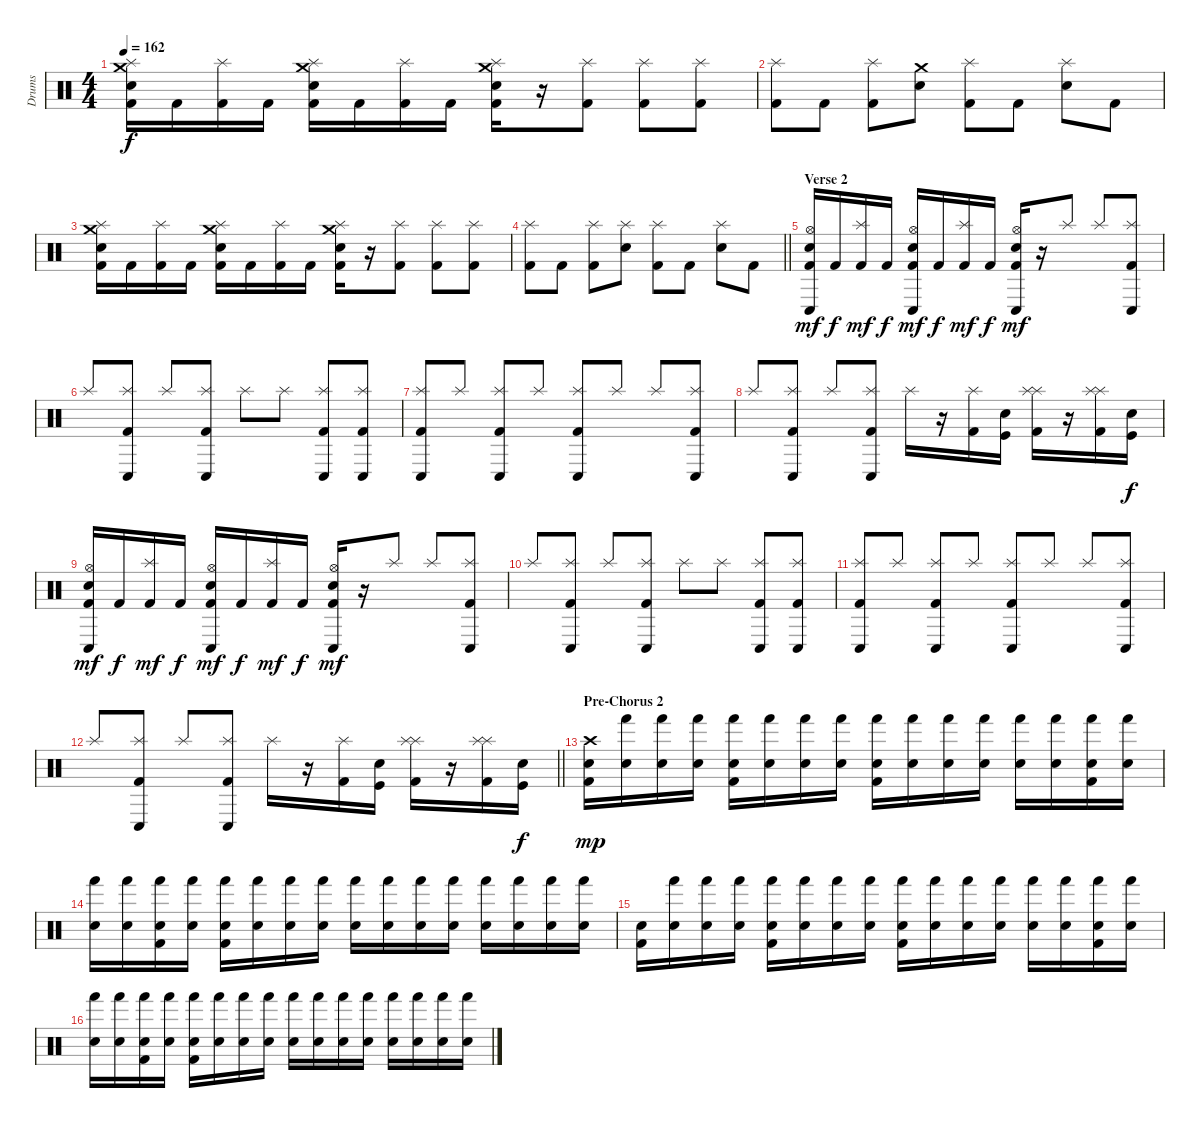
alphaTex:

\track ("Drums" "Drums") {instrument percussion}
\staff {score}
\articulation defaults
\ts (4 4)
\tempo 162
\clef neutral
\ks c
("Snare (hit) 2" "Kick (hit) 2" "Crash medium (hit)" "Splash (hit)").16{dy f} "Kick (hit) 2".16 ("Kick (hit) 2" "Splash (hit)").16 "Kick (hit) 2".16 ("Snare (hit) 2" "Kick (hit) 2" "Crash medium (hit)" "Splash (hit)").16 "Kick (hit) 2".16 ("Kick (hit) 2" "Splash (hit)").16 "Kick (hit) 2".16 ("Snare (hit) 2" "Kick (hit) 2" "Crash medium (hit)" "Splash (hit)").16 r.16 ("Kick (hit) 2" "Splash (hit)").8 ("Kick (hit) 2" "Splash (hit)").8 ("Kick (hit) 2" "Splash (hit)").8 |
("Kick (hit) 2" "Splash (hit)").8 "Kick (hit) 2".8 ("Kick (hit) 2" "Splash (hit)").8 ("Snare (hit) 2" "Crash medium (hit)").8 ("Kick (hit) 2" "Splash (hit)").8 "Kick (hit) 2".8 ("Snare (hit) 2" "Splash (hit)").8 "Kick (hit) 2".8 |
("Snare (hit) 2" "Kick (hit) 2" "Crash medium (hit)" "Splash (hit)").16 "Kick (hit) 2".16 ("Kick (hit) 2" "Splash (hit)").16 "Kick (hit) 2".16 ("Snare (hit) 2" "Kick (hit) 2" "Crash medium (hit)" "Splash (hit)").16 "Kick (hit) 2".16 ("Kick (hit) 2" "Splash (hit)").16 "Kick (hit) 2".16 ("Snare (hit) 2" "Kick (hit) 2" "Crash medium (hit)" "Splash (hit)").16 r.16 ("Kick (hit) 2" "Splash (hit)").8 ("Kick (hit) 2" "Splash (hit)").8 ("Kick (hit) 2" "Splash (hit)").8 |
\barLineRight lightlight
("Kick (hit) 2" "Splash (hit)").8 "Kick (hit) 2".8 ("Kick (hit) 2" "Splash (hit)").8 ("Snare (hit) 2" "Splash (hit)").8 ("Kick (hit) 2" "Splash (hit)").8 "Kick (hit) 2".8 ("Snare (hit) 2" "Splash (hit)").8 "Kick (hit) 2".8 |
\section ("" "Verse 2")
("Hi-Hat (open)" "Snare (hit) 2" "Conga low (hit)" "Kick (hit) 2").16{dy mf} "Kick (hit) 2".16{dy f} ("Splash (hit)" "Kick (hit) 2").16{dy mf} "Kick (hit) 2".16{dy f} ("Hi-Hat (open)" "Snare (hit) 2" "Conga low (hit)" "Kick (hit) 2").16{dy mf} "Kick (hit) 2".16{dy f} ("Splash (hit)" "Kick (hit) 2").16{dy mf} "Kick (hit) 2".16{dy f} ("Hi-Hat (open)" "Snare (hit) 2" "Conga low (hit)" "Kick (hit) 2").16{dy mf} r.16 "Splash (hit)".8 "Splash (hit)".8 ("Splash (hit)" "Conga low (hit)" "Kick (hit) 2").8 |
"Splash (hit)".8 ("Splash (hit)" "Conga low (hit)" "Kick (hit) 2").8 "Splash (hit)".8 ("Splash (hit)" "Conga low (hit)" "Kick (hit) 2").8 "Splash (hit)".8 "Splash (hit)".8 ("Splash (hit)" "Conga low (hit)" "Kick (hit) 2").8 ("Splash (hit)" "Conga low (hit)" "Kick (hit) 2").8 |
("Splash (hit)" "Conga low (hit)" "Kick (hit) 2").8 "Splash (hit)".8 ("Splash (hit)" "Conga low (hit)" "Kick (hit) 2").8 "Splash (hit)".8 ("Splash (hit)" "Conga low (hit)" "Kick (hit) 2").8 "Splash (hit)".8 "Splash (hit)".8 ("Splash (hit)" "Conga low (hit)" "Kick (hit) 2").8 |
"Splash (hit)".8 ("Splash (hit)" "Conga low (hit)" "Kick (hit) 2").8 "Splash (hit)".8 ("Splash (hit)" "Conga low (hit)" "Kick (hit) 2").8 "Splash (hit)".16 r.16 ("Kick (hit) 2" "Splash (hit)").16 ("Kick (hit)" "Electric Snare (hit)").16 ("Kick (hit) 2" "Splash (hit)" "Splash (hit)").16 r.16 ("Kick (hit) 2" "Splash (hit)" "Splash (hit)").16 ("Kick (hit)" "Electric Snare (hit)").16{dy f} |
("Hi-Hat (open)" "Snare (hit) 2" "Conga low (hit)" "Kick (hit) 2").16{dy mf} "Kick (hit) 2".16{dy f} ("Splash (hit)" "Kick (hit) 2").16{dy mf} "Kick (hit) 2".16{dy f} ("Hi-Hat (open)" "Snare (hit) 2" "Conga low (hit)" "Kick (hit) 2").16{dy mf} "Kick (hit) 2".16{dy f} ("Splash (hit)" "Kick (hit) 2").16{dy mf} "Kick (hit) 2".16{dy f} ("Hi-Hat (open)" "Snare (hit) 2" "Conga low (hit)" "Kick (hit) 2").16{dy mf} r.16 "Splash (hit)".8 "Splash (hit)".8 ("Splash (hit)" "Conga low (hit)" "Kick (hit) 2").8 |
"Splash (hit)".8 ("Splash (hit)" "Conga low (hit)" "Kick (hit) 2").8 "Splash (hit)".8 ("Splash (hit)" "Conga low (hit)" "Kick (hit) 2").8 "Splash (hit)".8 "Splash (hit)".8 ("Splash (hit)" "Conga low (hit)" "Kick (hit) 2").8 ("Splash (hit)" "Conga low (hit)" "Kick (hit) 2").8 |
("Splash (hit)" "Conga low (hit)" "Kick (hit) 2").8 "Splash (hit)".8 ("Splash (hit)" "Conga low (hit)" "Kick (hit) 2").8 "Splash (hit)".8 ("Splash (hit)" "Conga low (hit)" "Kick (hit) 2").8 "Splash (hit)".8 "Splash (hit)".8 ("Splash (hit)" "Conga low (hit)" "Kick (hit) 2").8 |
\barLineRight lightlight "Splash (hit)".8
("Splash (hit)" "Conga low (hit)" "Kick (hit) 2").8 "Splash (hit)".8 ("Splash (hit)" "Conga low (hit)" "Kick (hit) 2").8 "Splash (hit)".16 r.16 ("Kick (hit) 2" "Splash (hit)").16 ("Kick (hit)" "Electric Snare (hit)").16 ("Kick (hit) 2" "Splash (hit)" "Splash (hit)").16 r.16 ("Kick (hit) 2" "Splash (hit)" "Splash (hit)").16 ("Kick (hit)" "Electric Snare (hit)").16{dy f} |
\section ("" "Pre-Chorus 2")
("Crash high (hit)" "Electric Snare (hit)" "Kick (hit) 2").16{dy mp} ("Hand (hit)" "Electric Snare (hit)").16 ("Hand (hit)" "Electric Snare (hit)").16 ("Hand (hit)" "Electric Snare (hit)").16 ("Hand (hit)" "Electric Snare (hit)" "Kick (hit) 2").16 ("Hand (hit)" "Electric Snare (hit)").16 ("Hand (hit)" "Electric Snare (hit)").16 ("Hand (hit)" "Electric Snare (hit)").16 ("Hand (hit)" "Electric Snare (hit)" "Kick (hit) 2").16 ("Hand (hit)" "Electric Snare (hit)").16 ("Hand (hit)" "Electric Snare (hit)").16 ("Hand (hit)" "Electric Snare (hit)").16 ("Hand (hit)" "Electric Snare (hit)").16 ("Hand (hit)" "Electric Snare (hit)").16 ("Hand (hit)" "Electric Snare (hit)" "Kick (hit) 2").16 ("Hand (hit)" "Electric Snare (hit)").16 |
("Hand (hit)" "Electric Snare (hit)").16 ("Hand (hit)" "Electric Snare (hit)").16 ("Hand (hit)" "Electric Snare (hit)" "Kick (hit) 2").16 ("Hand (hit)" "Electric Snare (hit)").16 ("Hand (hit)" "Electric Snare (hit)" "Kick (hit) 2").16 ("Hand (hit)" "Electric Snare (hit)").16 ("Hand (hit)" "Electric Snare (hit)").16 ("Hand (hit)" "Electric Snare (hit)").16 ("Hand (hit)" "Electric Snare (hit)").16 ("Hand (hit)" "Electric Snare (hit)").16 ("Hand (hit)" "Electric Snare (hit)").16 ("Hand (hit)" "Electric Snare (hit)").16 ("Hand (hit)" "Electric Snare (hit)").16 ("Hand (hit)" "Electric Snare (hit)").16 ("Hand (hit)" "Electric Snare (hit)").16 ("Hand (hit)" "Electric Snare (hit)").16 |
("Electric Snare (hit)" "Kick (hit) 2").16 ("Hand (hit)" "Electric Snare (hit)").16 ("Hand (hit)" "Electric Snare (hit)").16 ("Hand (hit)" "Electric Snare (hit)").16 ("Hand (hit)" "Electric Snare (hit)" "Kick (hit) 2").16 ("Hand (hit)" "Electric Snare (hit)").16 ("Hand (hit)" "Electric Snare (hit)").16 ("Hand (hit)" "Electric Snare (hit)").16 ("Hand (hit)" "Electric Snare (hit)" "Kick (hit) 2").16 ("Hand (hit)" "Electric Snare (hit)").16 ("Hand (hit)" "Electric Snare (hit)").16 ("Hand (hit)" "Electric Snare (hit)").16 ("Hand (hit)" "Electric Snare (hit)").16 ("Hand (hit)" "Electric Snare (hit)").16 ("Hand (hit)" "Electric Snare (hit)" "Kick (hit) 2").16 ("Hand (hit)" "Electric Snare (hit)").16 |
("Hand (hit)" "Electric Snare (hit)").16 ("Hand (hit)" "Electric Snare (hit)").16 ("Hand (hit)" "Electric Snare (hit)" "Kick (hit) 2").16 ("Hand (hit)" "Electric Snare (hit)").16 ("Hand (hit)" "Electric Snare (hit)" "Kick (hit) 2").16 ("Hand (hit)" "Electric Snare (hit)").16 ("Hand (hit)" "Electric Snare (hit)").16 ("Hand (hit)" "Electric Snare (hit)").16 ("Hand (hit)" "Electric Snare (hit)").16 ("Hand (hit)" "Electric Snare (hit)").16 ("Hand (hit)" "Electric Snare (hit)").16 ("Hand (hit)" "Electric Snare (hit)").16 ("Hand (hit)" "Electric Snare (hit)").16 ("Hand (hit)" "Electric Snare (hit)").16 ("Hand (hit)" "Electric Snare (hit)").16 ("Hand (hit)" "Electric Snare (hit)").16
